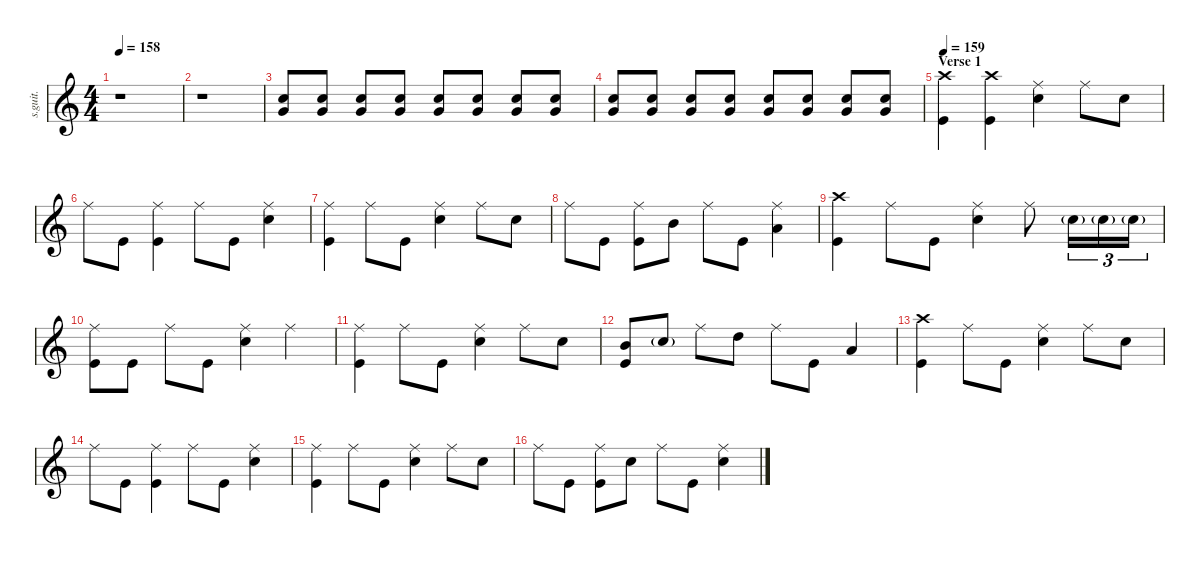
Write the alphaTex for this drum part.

\defaultSystemsLayout 4
\hideDynamics
\bracketExtendMode nobrackets
\track ("John Dolmayan" "s.guit.") {instrument percussion}
\staff {score}
\articulation defaults
\ts (4 4)
\tempo 158
\clef g2
\ks c
r.1{dy p} |
r.1 |
("Very Low Tom (hit)" "Snare (hit) 2").8{lyrics (0 "") lyrics (1 "") lyrics (2 "") lyrics (3 "") lyrics (4 "")} ("Very Low Tom (hit)" "Snare (hit) 2").8{lyrics (0 "") lyrics (1 "") lyrics (2 "") lyrics (3 "") lyrics (4 "")} ("Very Low Tom (hit)" "Snare (hit) 2").8{lyrics (0 "") lyrics (1 "") lyrics (2 "") lyrics (3 "") lyrics (4 "")} ("Very Low Tom (hit)" "Snare (hit) 2").8{lyrics (0 "") lyrics (1 "") lyrics (2 "") lyrics (3 "") lyrics (4 "")} ("Very Low Tom (hit)" "Snare (hit) 2").8{lyrics (0 "") lyrics (1 "") lyrics (2 "") lyrics (3 "") lyrics (4 "") dy mp} ("Snare (hit) 2" "Very Low Tom (hit)").8{lyrics (0 "") lyrics (1 "") lyrics (2 "") lyrics (3 "") lyrics (4 "")} ("Very Low Tom (hit)" "Snare (hit) 2").8{lyrics (0 "") lyrics (1 "") lyrics (2 "") lyrics (3 "") lyrics (4 "")} ("Very Low Tom (hit)" "Snare (hit) 2").8{lyrics (0 "") lyrics (1 "") lyrics (2 "") lyrics (3 "") lyrics (4 "")} |
("Very Low Tom (hit)" "Snare (hit) 2").8{lyrics (0 "") lyrics (1 "") lyrics (2 "") lyrics (3 "") lyrics (4 "") dy mf} ("Very Low Tom (hit)" "Snare (hit) 2").8{lyrics (0 "") lyrics (1 "") lyrics (2 "") lyrics (3 "") lyrics (4 "")} ("Very Low Tom (hit)" "Snare (hit) 2").8{lyrics (0 "") lyrics (1 "") lyrics (2 "") lyrics (3 "") lyrics (4 "")} ("Very Low Tom (hit)" "Snare (hit) 2").8{lyrics (0 "") lyrics (1 "") lyrics (2 "") lyrics (3 "") lyrics (4 "")} ("Very Low Tom (hit)" "Snare (hit) 2").8{lyrics (0 "") lyrics (1 "") lyrics (2 "") lyrics (3 "") lyrics (4 "") dy f} ("Snare (hit) 2" "Very Low Tom (hit)").8{lyrics (0 "") lyrics (1 "") lyrics (2 "") lyrics (3 "") lyrics (4 "")} ("Very Low Tom (hit)" "Snare (hit) 2").8{lyrics (0 "") lyrics (1 "") lyrics (2 "") lyrics (3 "") lyrics (4 "")} ("Very Low Tom (hit)" "Snare (hit) 2").8{lyrics (0 "") lyrics (1 "") lyrics (2 "") lyrics (3 "") lyrics (4 "")} |
\section ("" "Verse 1")
\tempo 159
("Crash high (hit)" "Kick (hit)").4{lyrics (0 "") lyrics (1 "") lyrics (2 "") lyrics (3 "") lyrics (4 "")} ("Kick (hit)" "Crash high (hit)").4{lyrics (0 "") lyrics (1 "") lyrics (2 "") lyrics (3 "") lyrics (4 "")} ("Ride (middle)" "Snare (hit) 2").4{lyrics (0 "") lyrics (1 "") lyrics (2 "") lyrics (3 "") lyrics (4 "")} "Ride (middle)".8{lyrics (0 "") lyrics (1 "") lyrics (2 "") lyrics (3 "") lyrics (4 "")} "Snare (hit) 2".8{lyrics (0 "") lyrics (1 "") lyrics (2 "") lyrics (3 "") lyrics (4 "")} |
"Ride (middle)".8{lyrics (0 "") lyrics (1 "") lyrics (2 "") lyrics (3 "") lyrics (4 "")} "Kick (hit)".8{lyrics (0 "") lyrics (1 "") lyrics (2 "") lyrics (3 "") lyrics (4 "")} ("Kick (hit)" "Ride (middle)").4{lyrics (0 "") lyrics (1 "") lyrics (2 "") lyrics (3 "") lyrics (4 "")} "Ride (middle)".8{lyrics (0 "") lyrics (1 "") lyrics (2 "") lyrics (3 "") lyrics (4 "")} "Kick (hit)".8{lyrics (0 "") lyrics (1 "") lyrics (2 "") lyrics (3 "") lyrics (4 "")} ("Snare (hit) 2" "Ride (middle)").4{lyrics (0 "") lyrics (1 "") lyrics (2 "") lyrics (3 "") lyrics (4 "")} |
("Ride (middle)" "Kick (hit)").4{lyrics (0 "") lyrics (1 "") lyrics (2 "") lyrics (3 "") lyrics (4 "")} "Ride (middle)".8{lyrics (0 "") lyrics (1 "") lyrics (2 "") lyrics (3 "") lyrics (4 "")} "Kick (hit)".8{lyrics (0 "") lyrics (1 "") lyrics (2 "") lyrics (3 "") lyrics (4 "")} ("Ride (middle)" "Snare (hit) 2").4{lyrics (0 "") lyrics (1 "") lyrics (2 "") lyrics (3 "") lyrics (4 "")} "Ride (middle)".8{lyrics (0 "") lyrics (1 "") lyrics (2 "") lyrics (3 "") lyrics (4 "")} "Snare (hit) 2".8{lyrics (0 "") lyrics (1 "") lyrics (2 "") lyrics (3 "") lyrics (4 "")} |
"Ride (middle)".8{lyrics (0 "") lyrics (1 "") lyrics (2 "") lyrics (3 "") lyrics (4 "")} "Kick (hit)".8{lyrics (0 "") lyrics (1 "") lyrics (2 "") lyrics (3 "") lyrics (4 "")} ("Ride (middle)" "Kick (hit)").8{lyrics (0 "") lyrics (1 "") lyrics (2 "") lyrics (3 "") lyrics (4 "")} "Mid Tom (hit)".8{lyrics (0 "") lyrics (1 "") lyrics (2 "") lyrics (3 "") lyrics (4 "") dy mf} "Ride (middle)".8{lyrics (0 "") lyrics (1 "") lyrics (2 "") lyrics (3 "") lyrics (4 "") dy f} "Kick (hit)".8{lyrics (0 "") lyrics (1 "") lyrics (2 "") lyrics (3 "") lyrics (4 "")} ("Ride (middle)" "Low Tom (hit)").4{lyrics (0 "") lyrics (1 "") lyrics (2 "") lyrics (3 "") lyrics (4 "")} |
("Crash high (hit)" "Kick (hit)").4{lyrics (0 "") lyrics (1 "") lyrics (2 "") lyrics (3 "") lyrics (4 "")} "Ride (middle)".8{lyrics (0 "") lyrics (1 "") lyrics (2 "") lyrics (3 "") lyrics (4 "")} "Kick (hit)".8{lyrics (0 "") lyrics (1 "") lyrics (2 "") lyrics (3 "") lyrics (4 "")} ("Ride (middle)" "Snare (hit) 2").4{lyrics (0 "") lyrics (1 "") lyrics (2 "") lyrics (3 "") lyrics (4 "")} "Ride (middle)".8{lyrics (0 "") lyrics (1 "") lyrics (2 "") lyrics (3 "") lyrics (4 "")} "Snare (hit) 2"{g}.16{tu (3 2) lyrics (0 "") lyrics (1 "") lyrics (2 "") lyrics (3 "") lyrics (4 "") dy ff} "Snare (hit) 2"{g}.16{tu (3 2) lyrics (0 "") lyrics (1 "") lyrics (2 "") lyrics (3 "") lyrics (4 "")} "Snare (hit) 2"{g}.16{tu (3 2) lyrics (0 "") lyrics (1 "") lyrics (2 "") lyrics (3 "") lyrics (4 "")} |
("Ride (middle)" "Kick (hit)").8{lyrics (0 "") lyrics (1 "") lyrics (2 "") lyrics (3 "") lyrics (4 "") dy f} "Kick (hit)".8{lyrics (0 "") lyrics (1 "") lyrics (2 "") lyrics (3 "") lyrics (4 "")} "Ride (middle)".8{lyrics (0 "") lyrics (1 "") lyrics (2 "") lyrics (3 "") lyrics (4 "")} "Kick (hit)".8{lyrics (0 "") lyrics (1 "") lyrics (2 "") lyrics (3 "") lyrics (4 "")} ("Ride (middle)" "Snare (hit) 2").4{lyrics (0 "") lyrics (1 "") lyrics (2 "") lyrics (3 "") lyrics (4 "")} "Ride (middle)".4{lyrics (0 "") lyrics (1 "") lyrics (2 "") lyrics (3 "") lyrics (4 "")} |
("Ride (middle)" "Kick (hit)").4{lyrics (0 "") lyrics (1 "") lyrics (2 "") lyrics (3 "") lyrics (4 "")} "Ride (middle)".8{lyrics (0 "") lyrics (1 "") lyrics (2 "") lyrics (3 "") lyrics (4 "")} "Kick (hit)".8{lyrics (0 "") lyrics (1 "") lyrics (2 "") lyrics (3 "") lyrics (4 "")} ("Ride (middle)" "Snare (hit) 2").4{lyrics (0 "") lyrics (1 "") lyrics (2 "") lyrics (3 "") lyrics (4 "")} "Ride (middle)".8{lyrics (0 "") lyrics (1 "") lyrics (2 "") lyrics (3 "") lyrics (4 "")} "Snare (hit) 2".8{lyrics (0 "") lyrics (1 "") lyrics (2 "") lyrics (3 "") lyrics (4 "")} |
("Mid Tom (hit)" "Kick (hit)").8{lyrics (0 "") lyrics (1 "") lyrics (2 "") lyrics (3 "") lyrics (4 "")} "Snare (hit) 2"{g}.8{lyrics (0 "") lyrics (1 "") lyrics (2 "") lyrics (3 "") lyrics (4 "")} "Ride (middle)".8{lyrics (0 "") lyrics (1 "") lyrics (2 "") lyrics (3 "") lyrics (4 "")} "High Tom (hit)".8{lyrics (0 "") lyrics (1 "") lyrics (2 "") lyrics (3 "") lyrics (4 "")} "Ride (middle)".8{lyrics (0 "") lyrics (1 "") lyrics (2 "") lyrics (3 "") lyrics (4 "")} "Kick (hit)".8{lyrics (0 "") lyrics (1 "") lyrics (2 "") lyrics (3 "") lyrics (4 "")} "Low Floor Tom (hit)".4{lyrics (0 "") lyrics (1 "") lyrics (2 "") lyrics (3 "") lyrics (4 "")} |
("Crash high (hit)" "Kick (hit)").4{lyrics (0 "") lyrics (1 "") lyrics (2 "") lyrics (3 "") lyrics (4 "")} "Ride (middle)".8{lyrics (0 "") lyrics (1 "") lyrics (2 "") lyrics (3 "") lyrics (4 "")} "Kick (hit)".8{lyrics (0 "") lyrics (1 "") lyrics (2 "") lyrics (3 "") lyrics (4 "")} ("Ride (middle)" "Snare (hit) 2").4{lyrics (0 "") lyrics (1 "") lyrics (2 "") lyrics (3 "") lyrics (4 "")} "Ride (middle)".8{lyrics (0 "") lyrics (1 "") lyrics (2 "") lyrics (3 "") lyrics (4 "")} "Snare (hit) 2".8{lyrics (0 "") lyrics (1 "") lyrics (2 "") lyrics (3 "") lyrics (4 "")} |
"Ride (middle)".8{lyrics (0 "") lyrics (1 "") lyrics (2 "") lyrics (3 "") lyrics (4 "")} "Kick (hit)".8{lyrics (0 "") lyrics (1 "") lyrics (2 "") lyrics (3 "") lyrics (4 "")} ("Ride (middle)" "Kick (hit)").4{lyrics (0 "") lyrics (1 "") lyrics (2 "") lyrics (3 "") lyrics (4 "")} "Ride (middle)".8{lyrics (0 "") lyrics (1 "") lyrics (2 "") lyrics (3 "") lyrics (4 "")} "Kick (hit)".8{lyrics (0 "") lyrics (1 "") lyrics (2 "") lyrics (3 "") lyrics (4 "")} ("Ride (middle)" "Snare (hit) 2").4{lyrics (0 "") lyrics (1 "") lyrics (2 "") lyrics (3 "") lyrics (4 "")} |
("Ride (middle)" "Kick (hit)").4{lyrics (0 "") lyrics (1 "") lyrics (2 "") lyrics (3 "") lyrics (4 "")} "Ride (middle)".8{lyrics (0 "") lyrics (1 "") lyrics (2 "") lyrics (3 "") lyrics (4 "")} "Kick (hit)".8{lyrics (0 "") lyrics (1 "") lyrics (2 "") lyrics (3 "") lyrics (4 "")} ("Ride (middle)" "Snare (hit) 2").4{lyrics (0 "") lyrics (1 "") lyrics (2 "") lyrics (3 "") lyrics (4 "")} "Ride (middle)".8{lyrics (0 "") lyrics (1 "") lyrics (2 "") lyrics (3 "") lyrics (4 "")} "Snare (hit) 2".8{lyrics (0 "") lyrics (1 "") lyrics (2 "") lyrics (3 "") lyrics (4 "")} |
"Ride (middle)".8{lyrics (0 "") lyrics (1 "") lyrics (2 "") lyrics (3 "") lyrics (4 "")} "Kick (hit)".8{lyrics (0 "") lyrics (1 "") lyrics (2 "") lyrics (3 "") lyrics (4 "")} ("Ride (middle)" "Kick (hit)").8{lyrics (0 "") lyrics (1 "") lyrics (2 "") lyrics (3 "") lyrics (4 "")} "Snare (hit) 2".8{lyrics (0 "") lyrics (1 "") lyrics (2 "") lyrics (3 "") lyrics (4 "")} "Ride (middle)".8{lyrics (0 "") lyrics (1 "") lyrics (2 "") lyrics (3 "") lyrics (4 "")} "Kick (hit)".8{lyrics (0 "") lyrics (1 "") lyrics (2 "") lyrics (3 "") lyrics (4 "")} ("Ride (middle)" "Snare (hit) 2").4{lyrics (0 "") lyrics (1 "") lyrics (2 "") lyrics (3 "") lyrics (4 "")}
